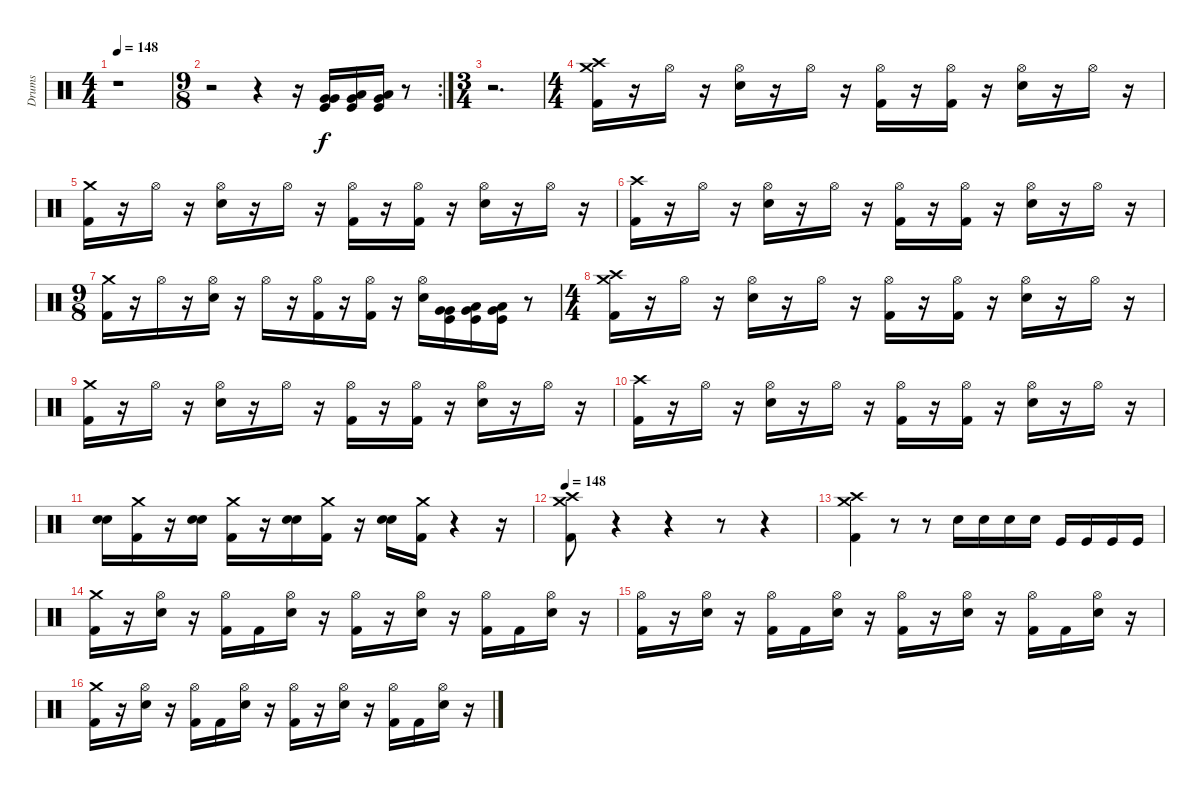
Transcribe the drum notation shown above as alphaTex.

\track ("Drums" "Drums") {instrument percussion}
\staff {score}
\articulation defaults
\ts (4 4)
\tempo 148
\tempo 80
\tempo 148
\clef neutral
\ks c
r.1{dy f} |
\rc 2
\ts (9 8)
r.2 r.4 r.16 ("Very Low Tom (hit)" "Very Low Tom (hit)" "Kick (hit)").16{bu 120} ("Low Floor Tom (hit)" "Very Low Tom (hit)" "Kick (hit)").16{bu 120} ("Low Floor Tom (hit)" "Very Low Tom (hit)" "Kick (hit)").16{bu 120} r.8 |
\ts (3 4)
r.2{d} |
\ts (4 4)
("Crash medium (hit)" "Crash high (hit)" "Kick (hit) 2").16 r.16 "Hi-Hat (open)".16 r.16 ("Hi-Hat (open)" "Electric Snare (hit)").16 r.16 "Hi-Hat (open)".16 r.16 ("Hi-Hat (open)" "Kick (hit) 2").16 r.16 ("Hi-Hat (open)" "Kick (hit) 2").16 r.16 ("Hi-Hat (open)" "Electric Snare (hit)").16 r.16 "Hi-Hat (open)".16 r.16 |
("Crash medium (hit)" "Kick (hit) 2").16 r.16 "Hi-Hat (open)".16 r.16 ("Hi-Hat (open)" "Electric Snare (hit)").16 r.16 "Hi-Hat (open)".16 r.16 ("Hi-Hat (open)" "Kick (hit) 2").16 r.16 ("Hi-Hat (open)" "Kick (hit) 2").16 r.16 ("Hi-Hat (open)" "Electric Snare (hit)").16 r.16 "Hi-Hat (open)".16 r.16 |
("Crash high (hit)" "Kick (hit) 2").16 r.16 "Hi-Hat (open)".16 r.16 ("Hi-Hat (open)" "Electric Snare (hit)").16 r.16 "Hi-Hat (open)".16 r.16 ("Hi-Hat (open)" "Kick (hit) 2").16 r.16 ("Hi-Hat (open)" "Kick (hit) 2").16 r.16 ("Hi-Hat (open)" "Electric Snare (hit)").16 r.16 "Hi-Hat (open)".16 r.16 |
\ts (9 8)
("Crash medium (hit)" "Kick (hit) 2").16 r.16 "Hi-Hat (open)".16 r.16 ("Hi-Hat (open)" "Electric Snare (hit)").16 r.16 "Hi-Hat (open)".16 r.16 ("Hi-Hat (open)" "Kick (hit) 2").16 r.16 ("Hi-Hat (open)" "Kick (hit) 2").16 r.16 ("Hi-Hat (open)" "Electric Snare (hit)").16 ("Very Low Tom (hit)" "Very Low Tom (hit)" "Kick (hit)").16{bu 120} ("Low Floor Tom (hit)" "Very Low Tom (hit)" "Kick (hit)").16{bu 120} ("Low Floor Tom (hit)" "Very Low Tom (hit)" "Kick (hit)").16{bu 120} r.8 |
\ts (4 4)
("Crash medium (hit)" "Crash high (hit)" "Kick (hit) 2").16 r.16 "Hi-Hat (open)".16 r.16 ("Hi-Hat (open)" "Electric Snare (hit)").16 r.16 "Hi-Hat (open)".16 r.16 ("Hi-Hat (open)" "Kick (hit) 2").16 r.16 ("Hi-Hat (open)" "Kick (hit) 2").16 r.16 ("Hi-Hat (open)" "Electric Snare (hit)").16 r.16 "Hi-Hat (open)".16 r.16 |
("Crash medium (hit)" "Kick (hit) 2").16 r.16 "Hi-Hat (open)".16 r.16 ("Hi-Hat (open)" "Electric Snare (hit)").16 r.16 "Hi-Hat (open)".16 r.16 ("Hi-Hat (open)" "Kick (hit) 2").16 r.16 ("Hi-Hat (open)" "Kick (hit) 2").16 r.16 ("Hi-Hat (open)" "Electric Snare (hit)").16 r.16 "Hi-Hat (open)".16 r.16 |
("Crash high (hit)" "Kick (hit) 2").16 r.16 "Hi-Hat (open)".16 r.16 ("Hi-Hat (open)" "Electric Snare (hit)").16 r.16 "Hi-Hat (open)".16 r.16 ("Hi-Hat (open)" "Kick (hit) 2").16 r.16 ("Hi-Hat (open)" "Kick (hit) 2").16 r.16 ("Hi-Hat (open)" "Electric Snare (hit)").16 r.16 "Hi-Hat (open)".16 r.16 |
("Electric Snare (hit)" "Electric Snare (hit)").16{bu 120} ("Crash medium (hit)" "Kick (hit) 2").16 r.16 ("Electric Snare (hit)" "Electric Snare (hit)").16{bu 120} ("Crash medium (hit)" "Kick (hit) 2").16 r.16 ("Electric Snare (hit)" "Electric Snare (hit)").16{bu 120} ("Crash medium (hit)" "Kick (hit) 2").16 r.16 ("Electric Snare (hit)" "Electric Snare (hit)").16{bu 120} ("Crash medium (hit)" "Kick (hit) 2").16 r.4 r.16 |
\tempo 148
("Crash high (hit)" "Crash medium (hit)" "Kick (hit) 2").8 r.4 r.4{volume 0} r.8 r.4{volume 15} |
("Crash high (hit)" "Crash medium (hit)" "Kick (hit) 2").4 r.8{volume 0} r.8{volume 15} "Electric Snare (hit)".16 "Electric Snare (hit)".16 "Electric Snare (hit)".16 "Electric Snare (hit)".16 "Kick (hit)".16 "Kick (hit)".16 "Kick (hit)".16 "Kick (hit)".16 |
("Crash medium (hit)" "Kick (hit) 2").16 r.16 ("Hi-Hat (open)" "Electric Snare (hit)").16 r.16 ("Hi-Hat (open)" "Kick (hit) 2").16 "Kick (hit) 2".16 ("Hi-Hat (open)" "Electric Snare (hit)").16 r.16 ("Hi-Hat (open)" "Kick (hit) 2").16 r.16 ("Hi-Hat (open)" "Electric Snare (hit)").16 r.16 ("Hi-Hat (open)" "Kick (hit) 2").16 "Kick (hit) 2".16 ("Hi-Hat (open)" "Electric Snare (hit)").16 r.16 |
("Hi-Hat (open)" "Kick (hit) 2").16 r.16 ("Hi-Hat (open)" "Electric Snare (hit)").16 r.16 ("Hi-Hat (open)" "Kick (hit) 2").16 "Kick (hit) 2".16 ("Hi-Hat (open)" "Electric Snare (hit)").16 r.16 ("Hi-Hat (open)" "Kick (hit) 2").16 r.16 ("Hi-Hat (open)" "Electric Snare (hit)").16 r.16 ("Hi-Hat (open)" "Kick (hit) 2").16 "Kick (hit) 2".16 ("Hi-Hat (open)" "Electric Snare (hit)").16 r.16 |
("Crash medium (hit)" "Kick (hit) 2").16 r.16 ("Hi-Hat (open)" "Electric Snare (hit)").16 r.16 ("Hi-Hat (open)" "Kick (hit) 2").16 "Kick (hit) 2".16 ("Hi-Hat (open)" "Electric Snare (hit)").16 r.16 ("Hi-Hat (open)" "Kick (hit) 2").16 r.16 ("Hi-Hat (open)" "Electric Snare (hit)").16 r.16 ("Hi-Hat (open)" "Kick (hit) 2").16 "Kick (hit) 2".16 ("Hi-Hat (open)" "Electric Snare (hit)").16 r.16
